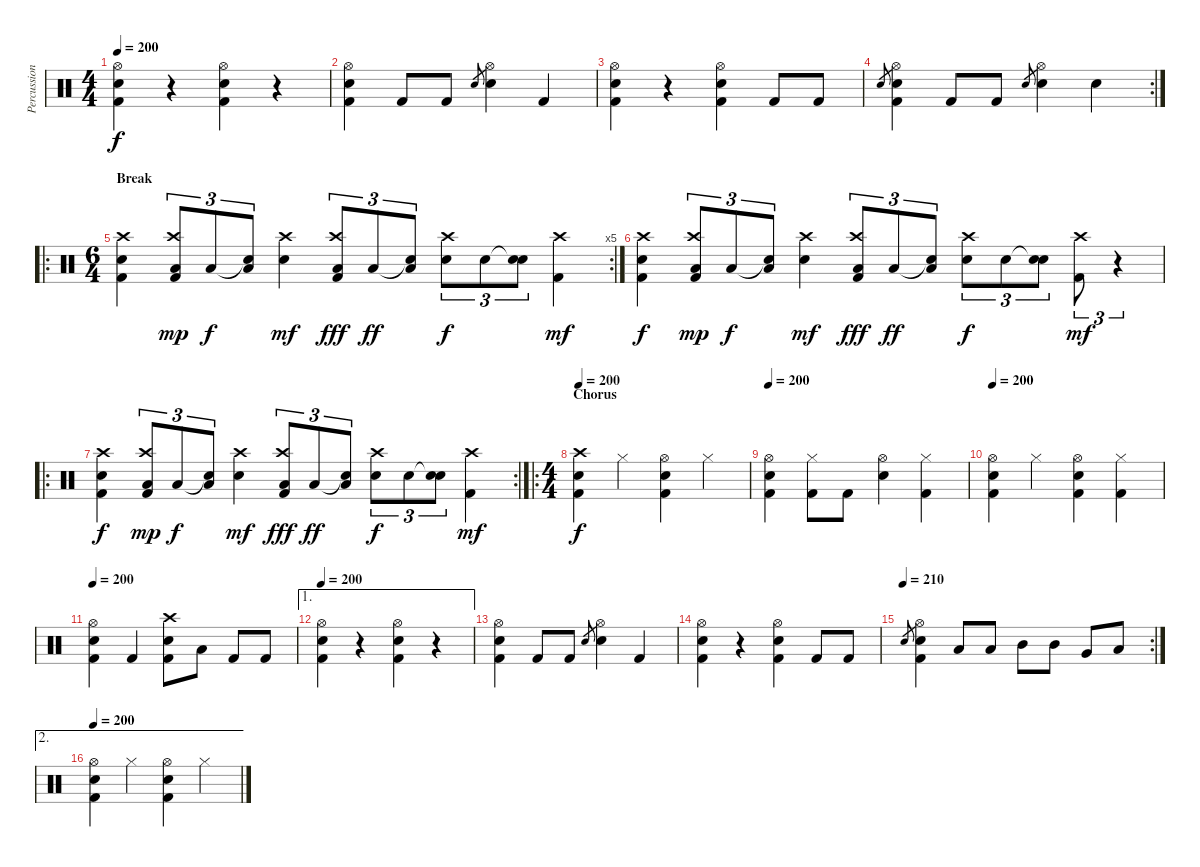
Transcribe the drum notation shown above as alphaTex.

\track ("Percussion" "Percussion") {instrument percussion}
\staff {score}
\articulation defaults
\ts (4 4)
\tempo 200
\clef neutral
\ks c
("Hi-Hat (open)" "Snare (hit) 2" "Kick (hit) 2").4{dy f} r.4 ("Hi-Hat (open)" "Snare (hit) 2" "Kick (hit) 2").4 r.4 |
("Hi-Hat (open)" "Snare (hit) 2" "Kick (hit) 2").4 "Kick (hit) 2".8 "Kick (hit) 2".8 "Snare (hit) 2".8{gr} ("Hi-Hat (open)" "Snare (hit) 2").4 "Kick (hit) 2".4 |
("Hi-Hat (open)" "Snare (hit) 2" "Kick (hit) 2").4 r.4 ("Hi-Hat (open)" "Snare (hit) 2" "Kick (hit) 2").4 "Kick (hit) 2".8 "Kick (hit) 2".8 |
\rc 2 "Snare (hit) 2".8{gr}
("Hi-Hat (open)" "Snare (hit) 2" "Kick (hit) 2").4 "Kick (hit) 2".8 "Kick (hit) 2".8 "Snare (hit) 2".8{gr} ("Hi-Hat (open)" "Snare (hit) 2").4 "Snare (hit) 2".4 |
\ro
\rc 5
\ts (6 4)
\section ("" "Break")
("Crash high (hit)" "Snare (hit) 2" "Kick (hit) 2").4 ("Crash high (hit)" "Low Floor Tom (hit)" "Kick (hit) 2").8{tu (3 2) dy mp} "Low Floor Tom (hit)".8{tu (3 2) dy f} ("Snare (hit)"{t} "Low Floor Tom (hit)").8{tu (3 2)} ("Crash high (hit)" "Snare (hit) 2").4{dy mf} ("Crash high (hit)" "Low Floor Tom (hit)" "Kick (hit) 2").8{tu (3 2) dy fff} "Low Floor Tom (hit)".8{tu (3 2) dy ff} ("Snare (hit)"{t} "Low Floor Tom (hit)").8{tu (3 2)} ("Crash high (hit)" "Snare (hit) 2").8{tu (3 2) dy f} "Snare (hit) 2".8{tu (3 2)} ("Snare (hit)"{t} "Snare (hit) 2").8{tu (3 2)} ("Crash high (hit)" "Kick (hit) 2").4{dy mf} |
("Crash high (hit)" "Snare (hit) 2" "Kick (hit) 2").4{dy f} ("Crash high (hit)" "Low Floor Tom (hit)" "Kick (hit) 2").8{tu (3 2) dy mp} "Low Floor Tom (hit)".8{tu (3 2) dy f} ("Snare (hit)"{t} "Low Floor Tom (hit)").8{tu (3 2)} ("Crash high (hit)" "Snare (hit) 2").4{dy mf} ("Crash high (hit)" "Low Floor Tom (hit)" "Kick (hit) 2").8{tu (3 2) dy fff} "Low Floor Tom (hit)".8{tu (3 2) dy ff} ("Snare (hit)"{t} "Low Floor Tom (hit)").8{tu (3 2)} ("Crash high (hit)" "Snare (hit) 2").8{tu (3 2) dy f} "Snare (hit) 2".8{tu (3 2)} ("Snare (hit)"{t} "Snare (hit) 2").8{tu (3 2)} ("Crash high (hit)" "Kick (hit) 2").8{tu (3 2) dy mf} r.4{tu (3 2)} |
\ro
\rc 2
("Crash high (hit)" "Snare (hit) 2" "Kick (hit) 2").4{dy f} ("Crash high (hit)" "Low Floor Tom (hit)" "Kick (hit) 2").8{tu (3 2) dy mp} "Low Floor Tom (hit)".8{tu (3 2) dy f} ("Snare (hit)"{t} "Low Floor Tom (hit)").8{tu (3 2)} ("Crash high (hit)" "Snare (hit) 2").4{dy mf} ("Crash high (hit)" "Low Floor Tom (hit)" "Kick (hit) 2").8{tu (3 2) dy fff} "Low Floor Tom (hit)".8{tu (3 2) dy ff} ("Snare (hit)"{t} "Low Floor Tom (hit)").8{tu (3 2)} ("Crash high (hit)" "Snare (hit) 2").8{tu (3 2) dy f} "Snare (hit) 2".8{tu (3 2)} ("Snare (hit)"{t} "Snare (hit) 2").8{tu (3 2)} ("Crash high (hit)" "Kick (hit) 2").4{dy mf} |
\ro
\ts (4 4)
\section ("" "Chorus")
\tempo 200
("Crash high (hit)" "Snare (hit) 2" "Kick (hit) 2").4{dy f} "Hi-Hat (closed)".4 ("Hi-Hat (open)" "Snare (hit) 2" "Kick (hit) 2").4 "Hi-Hat (closed)".4 |
\tempo 200
("Hi-Hat (open)" "Snare (hit) 2" "Kick (hit) 2").4 ("Hi-Hat (closed)" "Kick (hit) 2").8 "Kick (hit) 2".8 ("Hi-Hat (open)" "Snare (hit) 2").4 ("Hi-Hat (closed)" "Kick (hit) 2").4 |
\tempo 200
("Hi-Hat (open)" "Snare (hit) 2" "Kick (hit) 2").4 "Hi-Hat (closed)".4 ("Hi-Hat (open)" "Snare (hit) 2" "Kick (hit) 2").4 ("Hi-Hat (closed)" "Kick (hit) 2").4 |
\tempo 200
("Hi-Hat (open)" "Snare (hit) 2" "Kick (hit) 2").4 "Kick (hit) 2".4 ("Crash high (hit)" "Snare (hit) 2" "Kick (hit) 2").8 "Low Floor Tom (hit)".8 "Kick (hit) 2".8 "Kick (hit) 2".8 |
\ae 1
\tempo 200
("Hi-Hat (open)" "Snare (hit) 2" "Kick (hit) 2").4 r.4 ("Hi-Hat (open)" "Snare (hit) 2" "Kick (hit) 2").4 r.4 |
("Hi-Hat (open)" "Snare (hit) 2" "Kick (hit) 2").4 "Kick (hit) 2".8 "Kick (hit) 2".8 "Snare (hit) 2".8{gr} ("Hi-Hat (open)" "Snare (hit) 2").4 "Kick (hit) 2".4 |
("Hi-Hat (open)" "Snare (hit) 2" "Kick (hit) 2").4 r.4 ("Hi-Hat (open)" "Snare (hit) 2" "Kick (hit) 2").4 "Kick (hit) 2".8 "Kick (hit) 2".8 |
\rc 2
\tempo (210)
"Snare (hit) 2".8{gr} ("Hi-Hat (open)" "Snare (hit) 2" "Kick (hit) 2").4 "Low Tom (hit)".8 "Low Tom (hit)".8 "Mid Tom (hit)".8 "Mid Tom (hit)".8 "Very Low Tom (hit)".8 "Low Floor Tom (hit)".8 |
\ae 2
\tempo 200
("Hi-Hat (open)" "Snare (hit) 2" "Kick (hit) 2").4 "Hi-Hat (closed)".4 ("Hi-Hat (open)" "Snare (hit) 2" "Kick (hit) 2").4 "Hi-Hat (closed)".4
